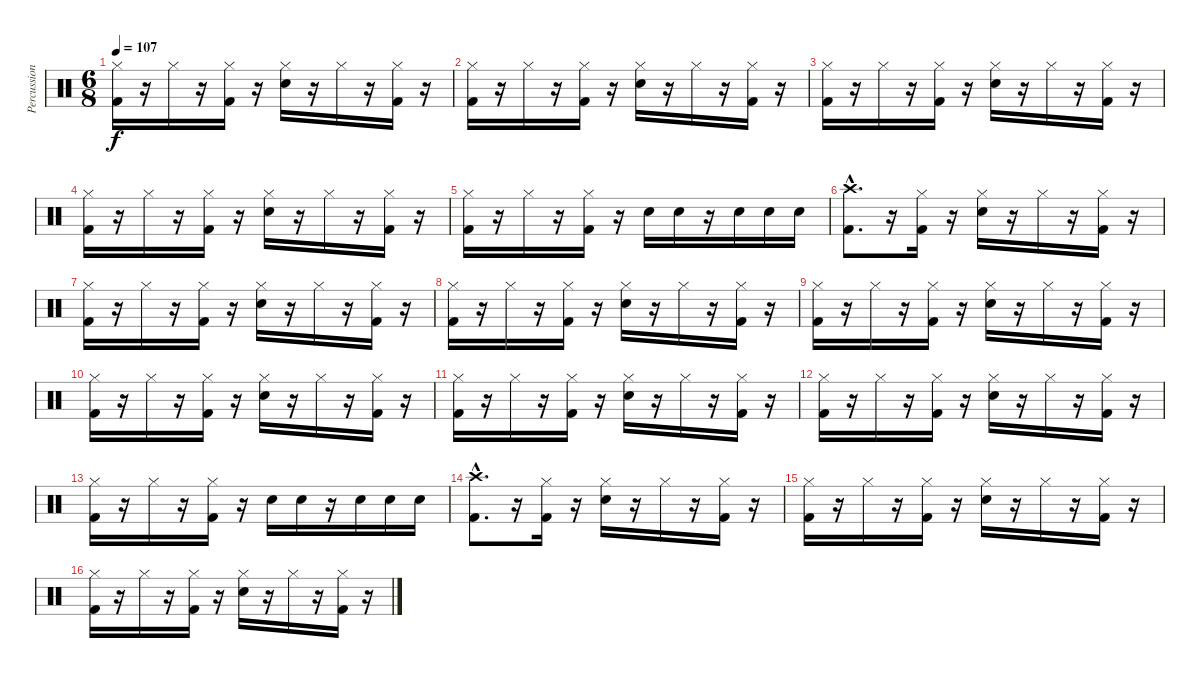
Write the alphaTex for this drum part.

\track ("Percussions" "Percussion") {instrument percussion}
\staff {score}
\articulation defaults
\ts (6 8)
\tempo 107
\clef neutral
\ks c
("Kick (hit) 2" "Hi-Hat (closed)").16{dy f} r.16 "Hi-Hat (closed)".16 r.16 ("Kick (hit) 2" "Hi-Hat (closed)").16 r.16 ("Snare (hit) 2" "Hi-Hat (closed)").16 r.16 "Hi-Hat (closed)".16 r.16 ("Kick (hit) 2" "Hi-Hat (closed)").16 r.16 |
("Kick (hit) 2" "Hi-Hat (closed)").16 r.16 "Hi-Hat (closed)".16 r.16 ("Kick (hit) 2" "Hi-Hat (closed)").16 r.16 ("Snare (hit) 2" "Hi-Hat (closed)").16 r.16 "Hi-Hat (closed)".16 r.16 ("Kick (hit) 2" "Hi-Hat (closed)").16 r.16 |
("Kick (hit) 2" "Hi-Hat (closed)").16 r.16 "Hi-Hat (closed)".16 r.16 ("Kick (hit) 2" "Hi-Hat (closed)").16 r.16 ("Snare (hit) 2" "Hi-Hat (closed)").16 r.16 "Hi-Hat (closed)".16 r.16 ("Kick (hit) 2" "Hi-Hat (closed)").16 r.16 |
("Kick (hit) 2" "Hi-Hat (closed)").16 r.16 "Hi-Hat (closed)".16 r.16 ("Kick (hit) 2" "Hi-Hat (closed)").16 r.16 ("Snare (hit) 2" "Hi-Hat (closed)").16 r.16 "Hi-Hat (closed)".16 r.16 ("Kick (hit) 2" "Hi-Hat (closed)").16 r.16 |
("Kick (hit) 2" "Hi-Hat (closed)").16 r.16 "Hi-Hat (closed)".16 r.16 ("Kick (hit) 2" "Hi-Hat (closed)").16 r.16 "Snare (hit) 2".16 "Snare (hit) 2".16 r.16 "Snare (hit) 2".16 "Snare (hit) 2".16 "Snare (hit) 2".16 |
("Kick (hit) 2"{hac} "Crash high (hit)"{hac}).8{d} r.16 ("Kick (hit) 2" "Hi-Hat (closed)").16 r.16 ("Snare (hit) 2" "Hi-Hat (closed)").16 r.16 "Hi-Hat (closed)".16 r.16 ("Kick (hit) 2" "Hi-Hat (closed)").16 r.16 |
("Kick (hit) 2" "Hi-Hat (closed)").16 r.16 "Hi-Hat (closed)".16 r.16 ("Kick (hit) 2" "Hi-Hat (closed)").16 r.16 ("Snare (hit) 2" "Hi-Hat (closed)").16 r.16 "Hi-Hat (closed)".16 r.16 ("Kick (hit) 2" "Hi-Hat (closed)").16 r.16 |
("Kick (hit) 2" "Hi-Hat (closed)").16 r.16 "Hi-Hat (closed)".16 r.16 ("Kick (hit) 2" "Hi-Hat (closed)").16 r.16 ("Snare (hit) 2" "Hi-Hat (closed)").16 r.16 "Hi-Hat (closed)".16 r.16 ("Kick (hit) 2" "Hi-Hat (closed)").16 r.16 |
("Kick (hit) 2" "Hi-Hat (closed)").16 r.16 "Hi-Hat (closed)".16 r.16 ("Kick (hit) 2" "Hi-Hat (closed)").16 r.16 ("Snare (hit) 2" "Hi-Hat (closed)").16 r.16 "Hi-Hat (closed)".16 r.16 ("Kick (hit) 2" "Hi-Hat (closed)").16 r.16 |
("Kick (hit) 2" "Hi-Hat (closed)").16 r.16 "Hi-Hat (closed)".16 r.16 ("Kick (hit) 2" "Hi-Hat (closed)").16 r.16 ("Snare (hit) 2" "Hi-Hat (closed)").16 r.16 "Hi-Hat (closed)".16 r.16 ("Kick (hit) 2" "Hi-Hat (closed)").16 r.16 |
("Kick (hit) 2" "Hi-Hat (closed)").16 r.16 "Hi-Hat (closed)".16 r.16 ("Kick (hit) 2" "Hi-Hat (closed)").16 r.16 ("Snare (hit) 2" "Hi-Hat (closed)").16 r.16 "Hi-Hat (closed)".16 r.16 ("Kick (hit) 2" "Hi-Hat (closed)").16 r.16 |
("Kick (hit) 2" "Hi-Hat (closed)").16 r.16 "Hi-Hat (closed)".16 r.16 ("Kick (hit) 2" "Hi-Hat (closed)").16 r.16 ("Snare (hit) 2" "Hi-Hat (closed)").16 r.16 "Hi-Hat (closed)".16 r.16 ("Kick (hit) 2" "Hi-Hat (closed)").16 r.16 |
("Kick (hit) 2" "Hi-Hat (closed)").16 r.16 "Hi-Hat (closed)".16 r.16 ("Kick (hit) 2" "Hi-Hat (closed)").16 r.16 "Snare (hit) 2".16 "Snare (hit) 2".16 r.16 "Snare (hit) 2".16 "Snare (hit) 2".16 "Snare (hit) 2".16 |
("Kick (hit) 2"{hac} "Crash high (hit)"{hac}).8{d} r.16 ("Kick (hit) 2" "Hi-Hat (closed)").16 r.16 ("Snare (hit) 2" "Hi-Hat (closed)").16 r.16 "Hi-Hat (closed)".16 r.16 ("Kick (hit) 2" "Hi-Hat (closed)").16 r.16 |
("Kick (hit) 2" "Hi-Hat (closed)").16 r.16 "Hi-Hat (closed)".16 r.16 ("Kick (hit) 2" "Hi-Hat (closed)").16 r.16 ("Snare (hit) 2" "Hi-Hat (closed)").16 r.16 "Hi-Hat (closed)".16 r.16 ("Kick (hit) 2" "Hi-Hat (closed)").16 r.16 |
("Kick (hit) 2" "Hi-Hat (closed)").16 r.16 "Hi-Hat (closed)".16 r.16 ("Kick (hit) 2" "Hi-Hat (closed)").16 r.16 ("Snare (hit) 2" "Hi-Hat (closed)").16 r.16 "Hi-Hat (closed)".16 r.16 ("Kick (hit) 2" "Hi-Hat (closed)").16 r.16
